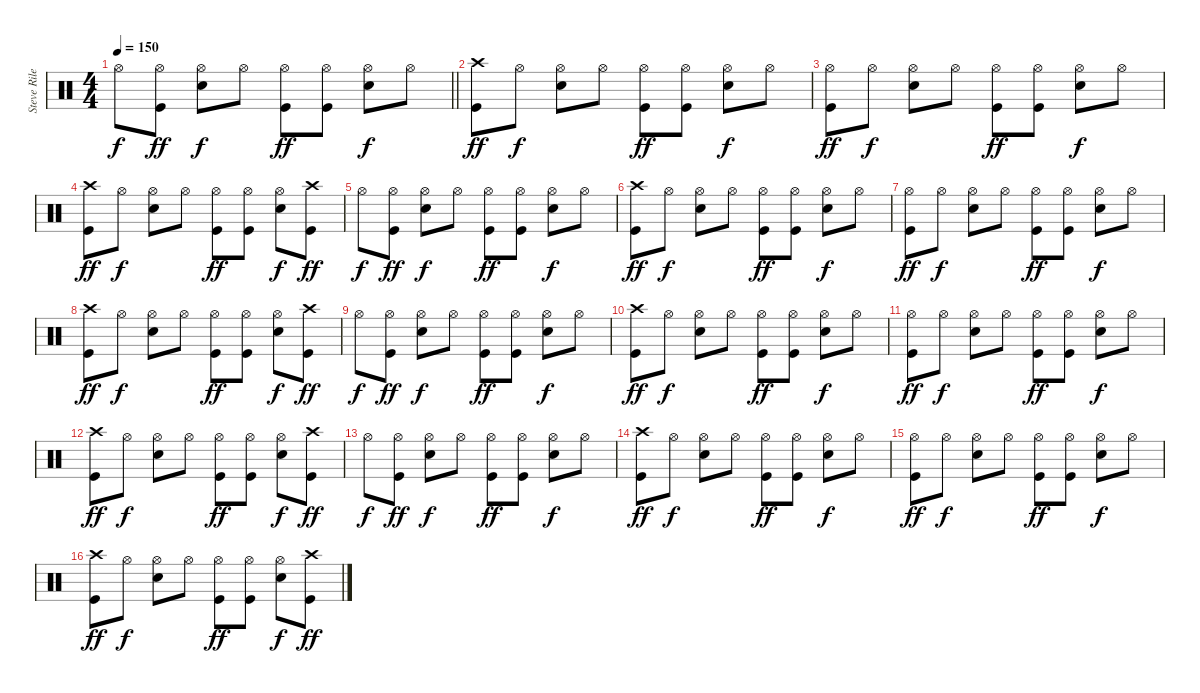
\track ("Steve Riley" "Steve Rile") {instrument percussion}
\staff {score}
\articulation defaults
\ts (4 4)
\tempo 150
\clef neutral
\barLineRight lightlight
\ks c "Hi-Hat (open)".8{dy f}
("Hi-Hat (open)" "Kick (hit)").8{dy ff} ("Hi-Hat (open)" "Snare (hit) 2").8{dy f} "Hi-Hat (open)".8 ("Hi-Hat (open)" "Kick (hit)").8{dy ff} ("Hi-Hat (open)" "Kick (hit)").8 ("Hi-Hat (open)" "Snare (hit) 2").8{dy f} "Hi-Hat (open)".8 |
("Crash high (hit)" "Kick (hit)").8{dy ff} "Hi-Hat (open)".8{dy f} ("Hi-Hat (open)" "Snare (hit) 2").8 "Hi-Hat (open)".8 ("Hi-Hat (open)" "Kick (hit)").8{dy ff} ("Hi-Hat (open)" "Kick (hit)").8 ("Hi-Hat (open)" "Snare (hit) 2").8{dy f} "Hi-Hat (open)".8 |
("Hi-Hat (open)" "Kick (hit)").8{dy ff} "Hi-Hat (open)".8{dy f} ("Hi-Hat (open)" "Snare (hit) 2").8 "Hi-Hat (open)".8 ("Hi-Hat (open)" "Kick (hit)").8{dy ff} ("Hi-Hat (open)" "Kick (hit)").8 ("Hi-Hat (open)" "Snare (hit) 2").8{dy f} "Hi-Hat (open)".8 |
("Crash high (hit)" "Kick (hit)").8{dy ff} "Hi-Hat (open)".8{dy f} ("Hi-Hat (open)" "Snare (hit) 2").8 "Hi-Hat (open)".8 ("Hi-Hat (open)" "Kick (hit)").8{dy ff} ("Hi-Hat (open)" "Kick (hit)").8 ("Hi-Hat (open)" "Snare (hit) 2").8{dy f} ("Crash high (hit)" "Kick (hit)").8{dy ff} |
"Hi-Hat (open)".8{dy f} ("Hi-Hat (open)" "Kick (hit)").8{dy ff} ("Hi-Hat (open)" "Snare (hit) 2").8{dy f} "Hi-Hat (open)".8 ("Hi-Hat (open)" "Kick (hit)").8{dy ff} ("Hi-Hat (open)" "Kick (hit)").8 ("Hi-Hat (open)" "Snare (hit) 2").8{dy f} "Hi-Hat (open)".8 |
("Crash high (hit)" "Kick (hit)").8{dy ff} "Hi-Hat (open)".8{dy f} ("Hi-Hat (open)" "Snare (hit) 2").8 "Hi-Hat (open)".8 ("Hi-Hat (open)" "Kick (hit)").8{dy ff} ("Hi-Hat (open)" "Kick (hit)").8 ("Hi-Hat (open)" "Snare (hit) 2").8{dy f} "Hi-Hat (open)".8 |
("Hi-Hat (open)" "Kick (hit)").8{dy ff} "Hi-Hat (open)".8{dy f} ("Hi-Hat (open)" "Snare (hit) 2").8 "Hi-Hat (open)".8 ("Hi-Hat (open)" "Kick (hit)").8{dy ff} ("Hi-Hat (open)" "Kick (hit)").8 ("Hi-Hat (open)" "Snare (hit) 2").8{dy f} "Hi-Hat (open)".8 |
("Crash high (hit)" "Kick (hit)").8{dy ff} "Hi-Hat (open)".8{dy f} ("Hi-Hat (open)" "Snare (hit) 2").8 "Hi-Hat (open)".8 ("Hi-Hat (open)" "Kick (hit)").8{dy ff} ("Hi-Hat (open)" "Kick (hit)").8 ("Hi-Hat (open)" "Snare (hit) 2").8{dy f} ("Crash high (hit)" "Kick (hit)").8{dy ff} |
"Hi-Hat (open)".8{dy f} ("Hi-Hat (open)" "Kick (hit)").8{dy ff} ("Hi-Hat (open)" "Snare (hit) 2").8{dy f} "Hi-Hat (open)".8 ("Hi-Hat (open)" "Kick (hit)").8{dy ff} ("Hi-Hat (open)" "Kick (hit)").8 ("Hi-Hat (open)" "Snare (hit) 2").8{dy f} "Hi-Hat (open)".8 |
("Crash high (hit)" "Kick (hit)").8{dy ff} "Hi-Hat (open)".8{dy f} ("Hi-Hat (open)" "Snare (hit) 2").8 "Hi-Hat (open)".8 ("Hi-Hat (open)" "Kick (hit)").8{dy ff} ("Hi-Hat (open)" "Kick (hit)").8 ("Hi-Hat (open)" "Snare (hit) 2").8{dy f} "Hi-Hat (open)".8 |
("Hi-Hat (open)" "Kick (hit)").8{dy ff} "Hi-Hat (open)".8{dy f} ("Hi-Hat (open)" "Snare (hit) 2").8 "Hi-Hat (open)".8 ("Hi-Hat (open)" "Kick (hit)").8{dy ff} ("Hi-Hat (open)" "Kick (hit)").8 ("Hi-Hat (open)" "Snare (hit) 2").8{dy f} "Hi-Hat (open)".8 |
("Crash high (hit)" "Kick (hit)").8{dy ff} "Hi-Hat (open)".8{dy f} ("Hi-Hat (open)" "Snare (hit) 2").8 "Hi-Hat (open)".8 ("Hi-Hat (open)" "Kick (hit)").8{dy ff} ("Hi-Hat (open)" "Kick (hit)").8 ("Hi-Hat (open)" "Snare (hit) 2").8{dy f} ("Crash high (hit)" "Kick (hit)").8{dy ff} |
"Hi-Hat (open)".8{dy f} ("Hi-Hat (open)" "Kick (hit)").8{dy ff} ("Hi-Hat (open)" "Snare (hit) 2").8{dy f} "Hi-Hat (open)".8 ("Hi-Hat (open)" "Kick (hit)").8{dy ff} ("Hi-Hat (open)" "Kick (hit)").8 ("Hi-Hat (open)" "Snare (hit) 2").8{dy f} "Hi-Hat (open)".8 |
("Crash high (hit)" "Kick (hit)").8{dy ff} "Hi-Hat (open)".8{dy f} ("Hi-Hat (open)" "Snare (hit) 2").8 "Hi-Hat (open)".8 ("Hi-Hat (open)" "Kick (hit)").8{dy ff} ("Hi-Hat (open)" "Kick (hit)").8 ("Hi-Hat (open)" "Snare (hit) 2").8{dy f} "Hi-Hat (open)".8 |
("Hi-Hat (open)" "Kick (hit)").8{dy ff} "Hi-Hat (open)".8{dy f} ("Hi-Hat (open)" "Snare (hit) 2").8 "Hi-Hat (open)".8 ("Hi-Hat (open)" "Kick (hit)").8{dy ff} ("Hi-Hat (open)" "Kick (hit)").8 ("Hi-Hat (open)" "Snare (hit) 2").8{dy f} "Hi-Hat (open)".8 |
("Crash high (hit)" "Kick (hit)").8{dy ff} "Hi-Hat (open)".8{dy f} ("Hi-Hat (open)" "Snare (hit) 2").8 "Hi-Hat (open)".8 ("Hi-Hat (open)" "Kick (hit)").8{dy ff} ("Hi-Hat (open)" "Kick (hit)").8 ("Hi-Hat (open)" "Snare (hit) 2").8{dy f} ("Crash high (hit)" "Kick (hit)").8{dy ff}
